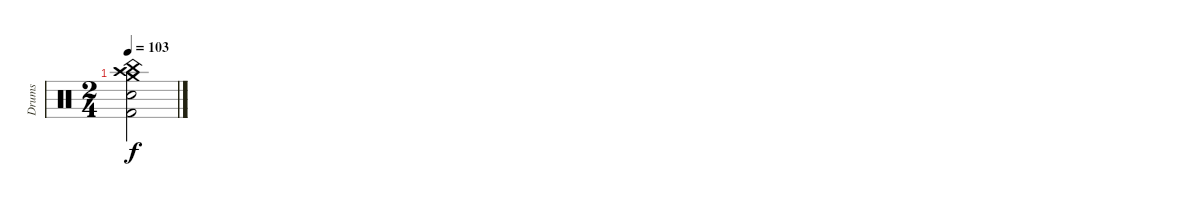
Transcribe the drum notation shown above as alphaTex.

\track ("Drums" "Drums") {instrument percussion}
\staff {score}
\articulation defaults
\ts (2 4)
\tempo 103
\clef neutral
\ks c
("Crash high (hit)" "China (hit)" "Crash medium (hit)" "Electric Snare (hit)" "Kick (hit) 2").2{dy f}
